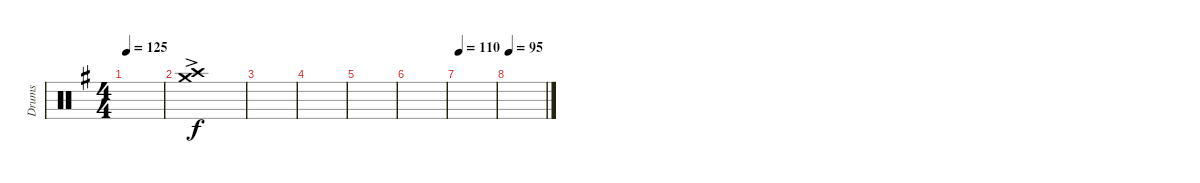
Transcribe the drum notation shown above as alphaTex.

\defaultSystemsLayout 4
\bracketExtendMode groupsimilarinstruments
\otherSystemsTrackNameOrientation horizontal
\track ("Drumkit" "Drums") {instrument percussion}
\staff {score}
\articulation defaults
\ts (4 4)
\tempo 125
\clef neutral
\scale
0.333333
\ks g
|
("Crash medium (hit)"{ac acc forcenatural} "Crash high (hit)"{ac acc forcenatural}).1{dy f beam Down} |
|
|
|
|
\tempo 110
|
\tempo 95
